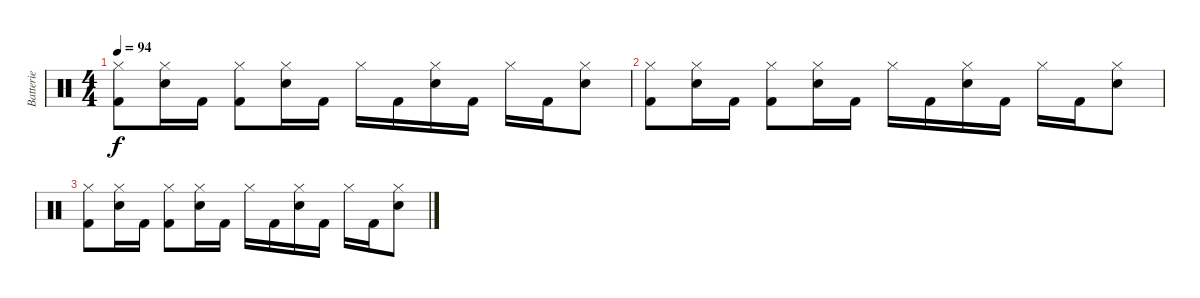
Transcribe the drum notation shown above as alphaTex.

\track ("Batterie" "Batterie") {instrument percussion}
\staff {score}
\articulation defaults
\ts (4 4)
\tempo 94
\clef neutral
\ks c
("Hi-Hat (closed)" "Kick (hit) 2").8{dy f} ("Hi-Hat (closed)" "Electric Snare (hit)").16 "Kick (hit) 2".16 ("Hi-Hat (closed)" "Kick (hit) 2").8 ("Hi-Hat (closed)" "Electric Snare (hit)").16 "Kick (hit) 2".16 "Hi-Hat (closed)".16 "Kick (hit) 2".16 ("Hi-Hat (closed)" "Electric Snare (hit)").16 "Kick (hit) 2".16 "Hi-Hat (closed)".16 "Kick (hit) 2".16 ("Hi-Hat (closed)" "Electric Snare (hit)").8 |
("Hi-Hat (closed)" "Kick (hit) 2").8 ("Hi-Hat (closed)" "Electric Snare (hit)").16 "Kick (hit) 2".16 ("Hi-Hat (closed)" "Kick (hit) 2").8 ("Hi-Hat (closed)" "Electric Snare (hit)").16 "Kick (hit) 2".16 "Hi-Hat (closed)".16 "Kick (hit) 2".16 ("Hi-Hat (closed)" "Electric Snare (hit)").16 "Kick (hit) 2".16 "Hi-Hat (closed)".16 "Kick (hit) 2".16 ("Hi-Hat (closed)" "Electric Snare (hit)").8 |
("Hi-Hat (closed)" "Kick (hit) 2").8 ("Hi-Hat (closed)" "Electric Snare (hit)").16 "Kick (hit) 2".16 ("Hi-Hat (closed)" "Kick (hit) 2").8 ("Hi-Hat (closed)" "Electric Snare (hit)").16 "Kick (hit) 2".16 "Hi-Hat (closed)".16 "Kick (hit) 2".16 ("Hi-Hat (closed)" "Electric Snare (hit)").16 "Kick (hit) 2".16 "Hi-Hat (closed)".16 "Kick (hit) 2".16 ("Hi-Hat (closed)" "Electric Snare (hit)").8
